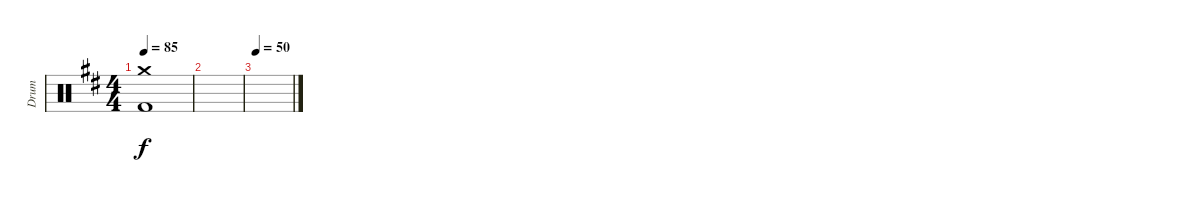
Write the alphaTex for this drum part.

\track ("Drum" "Drum") {instrument percussion}
\staff {score}
\articulation defaults
\ts (4 4)
\tempo 85
\clef neutral
\ks d
("Crash medium (hit)" "Kick (hit) 2").1{dy f} |
|
\tempo 50
